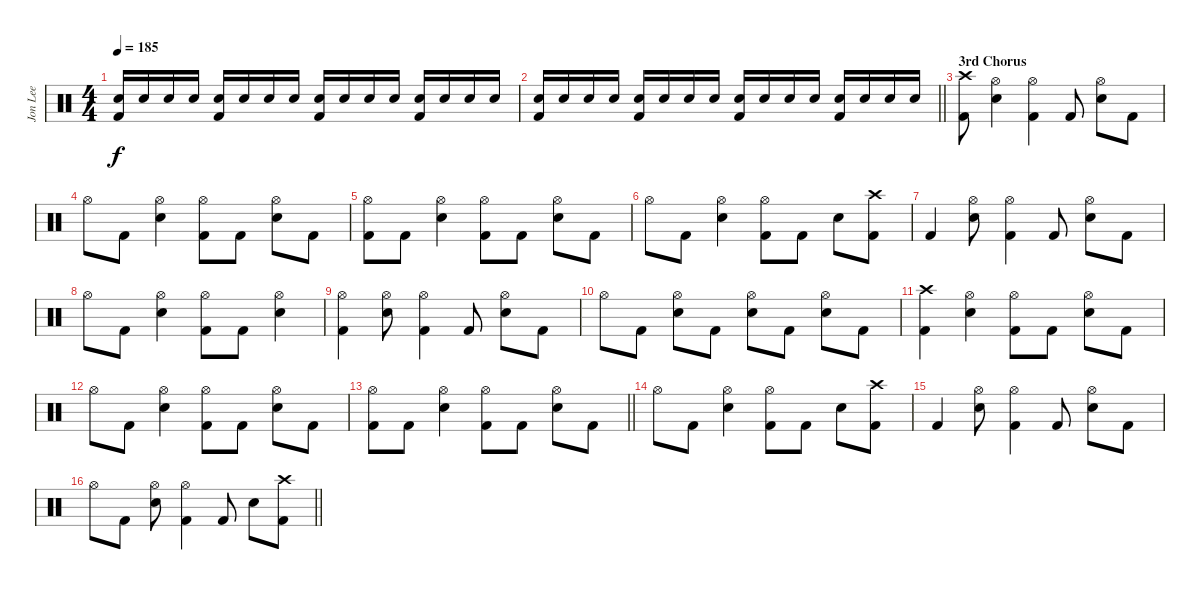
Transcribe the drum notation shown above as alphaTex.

\track ("Jon Lee" "Jon Lee") {instrument percussion bank 10}
\staff {score}
\articulation defaults
\ts (4 4)
\tempo 185
\clef neutral
\ks c
("Snare (hit) 2" "Kick (hit) 2").16{dy f} "Snare (hit) 2".16 "Snare (hit) 2".16 "Snare (hit) 2".16 ("Snare (hit) 2" "Kick (hit) 2").16 "Snare (hit) 2".16 "Snare (hit) 2".16 "Snare (hit) 2".16 ("Snare (hit) 2" "Kick (hit) 2").16 "Snare (hit) 2".16 "Snare (hit) 2".16 "Snare (hit) 2".16 ("Snare (hit) 2" "Kick (hit) 2").16 "Snare (hit) 2".16 "Snare (hit) 2".16 "Snare (hit) 2".16 |
\barLineRight lightlight
("Snare (hit) 2" "Kick (hit) 2").16 "Snare (hit) 2".16 "Snare (hit) 2".16 "Snare (hit) 2".16 ("Snare (hit) 2" "Kick (hit) 2").16 "Snare (hit) 2".16 "Snare (hit) 2".16 "Snare (hit) 2".16 ("Snare (hit) 2" "Kick (hit) 2").16 "Snare (hit) 2".16 "Snare (hit) 2".16 "Snare (hit) 2".16 ("Snare (hit) 2" "Kick (hit) 2").16 "Snare (hit) 2".16 "Snare (hit) 2".16 "Snare (hit) 2".16 |
\section ("" "3rd Chorus")
("Kick (hit) 2" "Crash high (hit)").8 ("Snare (hit) 2" "Hi-Hat (open)").4 ("Hi-Hat (open)" "Kick (hit) 2").4 "Kick (hit) 2".8 ("Snare (hit) 2" "Hi-Hat (open)").8 "Kick (hit) 2".8 |
"Hi-Hat (open)".8 "Kick (hit) 2".8 ("Snare (hit) 2" "Hi-Hat (open)").4 ("Kick (hit) 2" "Hi-Hat (open)").8 "Kick (hit) 2".8 ("Snare (hit) 2" "Hi-Hat (open)").8 "Kick (hit) 2".8 |
("Hi-Hat (open)" "Kick (hit) 2").8 "Kick (hit) 2".8 ("Snare (hit) 2" "Hi-Hat (open)").4 ("Kick (hit) 2" "Hi-Hat (open)").8 "Kick (hit) 2".8 ("Snare (hit) 2" "Hi-Hat (open)").8 "Kick (hit) 2".8 |
"Hi-Hat (open)".8 "Kick (hit) 2".8 ("Snare (hit) 2" "Hi-Hat (open)").4 ("Kick (hit) 2" "Hi-Hat (open)").8 "Kick (hit) 2".8 "Snare (hit) 2".8 ("Kick (hit) 2" "Crash high (hit)").8 |
"Kick (hit) 2".4 ("Snare (hit) 2" "Hi-Hat (open)").8 ("Kick (hit) 2" "Hi-Hat (open)").4 "Kick (hit) 2".8 ("Snare (hit) 2" "Hi-Hat (open)").8 "Kick (hit) 2".8 |
"Hi-Hat (open)".8 "Kick (hit) 2".8 ("Snare (hit) 2" "Hi-Hat (open)").4 ("Kick (hit) 2" "Hi-Hat (open)").8 "Kick (hit) 2".8 ("Snare (hit) 2" "Hi-Hat (open)").4 |
("Hi-Hat (open)" "Kick (hit) 2").4 ("Snare (hit) 2" "Hi-Hat (open)").8 ("Kick (hit) 2" "Hi-Hat (open)").4 "Kick (hit) 2".8 ("Snare (hit) 2" "Hi-Hat (open)").8 "Kick (hit) 2".8 |
"Hi-Hat (open)".8 "Kick (hit) 2".8 ("Snare (hit) 2" "Hi-Hat (open)").8 "Kick (hit) 2".8 ("Snare (hit) 2" "Hi-Hat (open)").8 "Kick (hit) 2".8 ("Snare (hit) 2" "Hi-Hat (open)").8 "Kick (hit) 2".8 |
("Kick (hit) 2" "Crash high (hit)").4 ("Snare (hit) 2" "Hi-Hat (open)").4 ("Hi-Hat (open)" "Kick (hit) 2").8 "Kick (hit) 2".8 ("Snare (hit) 2" "Hi-Hat (open)").8 "Kick (hit) 2".8 |
"Hi-Hat (open)".8 "Kick (hit) 2".8 ("Snare (hit) 2" "Hi-Hat (open)").4 ("Kick (hit) 2" "Hi-Hat (open)").8 "Kick (hit) 2".8 ("Snare (hit) 2" "Hi-Hat (open)").8 "Kick (hit) 2".8 |
\barLineRight lightlight
("Hi-Hat (open)" "Kick (hit) 2").8 "Kick (hit) 2".8 ("Snare (hit) 2" "Hi-Hat (open)").4 ("Kick (hit) 2" "Hi-Hat (open)").8 "Kick (hit) 2".8 ("Snare (hit) 2" "Hi-Hat (open)").8 "Kick (hit) 2".8 |
"Hi-Hat (open)".8 "Kick (hit) 2".8 ("Snare (hit) 2" "Hi-Hat (open)").4 ("Kick (hit) 2" "Hi-Hat (open)").8 "Kick (hit) 2".8 "Snare (hit) 2".8 ("Kick (hit) 2" "Crash high (hit)").8 |
"Kick (hit) 2".4 ("Snare (hit) 2" "Hi-Hat (open)").8 ("Kick (hit) 2" "Hi-Hat (open)").4 "Kick (hit) 2".8 ("Snare (hit) 2" "Hi-Hat (open)").8 "Kick (hit) 2".8 |
\barLineRight lightlight "Hi-Hat (open)".8 "Kick (hit) 2".8
("Snare (hit) 2" "Hi-Hat (open)").8 ("Kick (hit) 2" "Hi-Hat (open)").4 "Kick (hit) 2".8 "Snare (hit) 2".8 ("Kick (hit) 2" "Crash high (hit)").8
